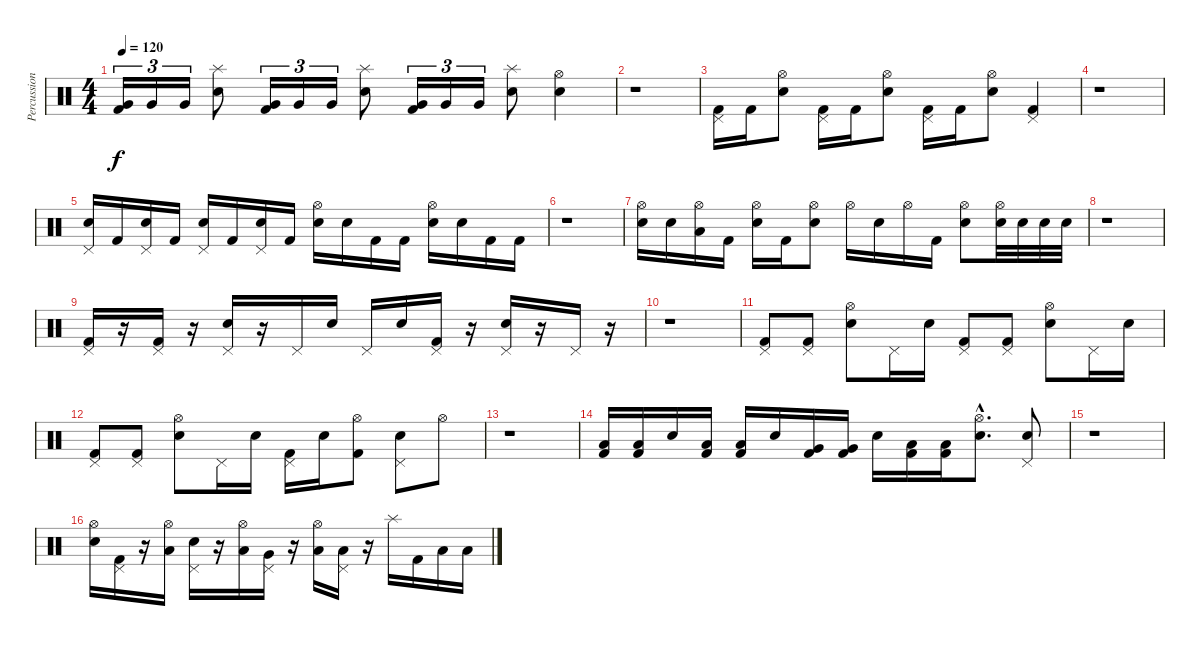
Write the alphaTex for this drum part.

\track ("Percussion" "Percussion") {instrument percussion}
\staff {score}
\articulation defaults
\ts (4 4)
\tempo 120
\clef neutral
\ks c
("Very Low Tom (hit)" "Kick (hit) 2").16{tu (3 2) dy f} "Very Low Tom (hit)".16{tu (3 2)} "Very Low Tom (hit)".16{tu (3 2)} ("Snare (hit) 2" "Splash (hit)").8 ("Very Low Tom (hit)" "Kick (hit) 2").16{tu (3 2)} "Very Low Tom (hit)".16{tu (3 2)} "Very Low Tom (hit)".16{tu (3 2)} ("Snare (hit) 2" "Splash (hit)").8 ("Very Low Tom (hit)" "Kick (hit) 2").16{tu (3 2)} "Very Low Tom (hit)".16{tu (3 2)} "Very Low Tom (hit)".16{tu (3 2)} ("Snare (hit) 2" "Splash (hit)").8 ("Snare (hit) 2" "Hi-Hat (open)").4 |
r.1 |
("Kick (hit) 2" "Pedal Hi-Hat (hit)").16 "Kick (hit) 2".16 ("Snare (hit) 2" "Hi-Hat (open)").8 ("Kick (hit) 2" "Pedal Hi-Hat (hit)").16 "Kick (hit) 2".16 ("Snare (hit) 2" "Hi-Hat (open)").8 ("Kick (hit) 2" "Pedal Hi-Hat (hit)").16 "Kick (hit) 2".16 ("Snare (hit) 2" "Hi-Hat (open)").8 ("Kick (hit) 2" "Pedal Hi-Hat (hit)").4 |
r.1 |
("Snare (hit) 2" "Pedal Hi-Hat (hit)").16 "Kick (hit) 2".16 ("Snare (hit) 2" "Pedal Hi-Hat (hit)").16 "Kick (hit) 2".16 ("Snare (hit) 2" "Pedal Hi-Hat (hit)").16 "Kick (hit) 2".16 ("Snare (hit) 2" "Pedal Hi-Hat (hit)").16 "Kick (hit) 2".16 ("Snare (hit) 2" "Hi-Hat (open)").16 "Snare (hit) 2".16 "Kick (hit) 2".16 "Kick (hit) 2".16 ("Snare (hit) 2" "Hi-Hat (open)").16 "Snare (hit) 2".16 "Kick (hit) 2".16 "Kick (hit) 2".16 |
r.1 |
("Snare (hit) 2" "Hi-Hat (open)").16 "Snare (hit) 2".16 ("Low Tom (hit)" "Hi-Hat (open)").16 "Kick (hit) 2".16 ("Snare (hit) 2" "Hi-Hat (open)").16 "Kick (hit) 2".16 ("Snare (hit) 2" "Hi-Hat (open)").8 "Hi-Hat (open)".16 "Snare (hit) 2".16 "Hi-Hat (open)".16 "Kick (hit) 2".16 ("Snare (hit) 2" "Hi-Hat (open)").8 ("Snare (hit) 2" "Hi-Hat (open)").32 "Snare (hit) 2".32 "Snare (hit) 2".32 "Snare (hit) 2".32 |
r.1 |
("Kick (hit) 2" "Pedal Hi-Hat (hit)").16 r.16 ("Kick (hit) 2" "Pedal Hi-Hat (hit)").16 r.16 ("Snare (hit) 2" "Pedal Hi-Hat (hit)").16 r.16 "Pedal Hi-Hat (hit)".16 "Snare (hit) 2".16 "Pedal Hi-Hat (hit)".16 "Snare (hit) 2".16 ("Kick (hit) 2" "Pedal Hi-Hat (hit)").16 r.16 ("Snare (hit) 2" "Pedal Hi-Hat (hit)").16 r.16 "Pedal Hi-Hat (hit)".16 r.16 |
r.1 |
("Kick (hit) 2" "Pedal Hi-Hat (hit)").8 ("Kick (hit) 2" "Pedal Hi-Hat (hit)").8 ("Snare (hit) 2" "Hi-Hat (open)").8 "Pedal Hi-Hat (hit)".16 "Snare (hit) 2".16 ("Kick (hit) 2" "Pedal Hi-Hat (hit)").8 ("Kick (hit) 2" "Pedal Hi-Hat (hit)").8 ("Snare (hit) 2" "Hi-Hat (open)").8 "Pedal Hi-Hat (hit)".16 "Snare (hit) 2".16 |
("Kick (hit) 2" "Pedal Hi-Hat (hit)").8 ("Kick (hit) 2" "Pedal Hi-Hat (hit)").8 ("Snare (hit) 2" "Hi-Hat (open)").8 "Pedal Hi-Hat (hit)".16 "Snare (hit) 2".16 ("Kick (hit) 2" "Pedal Hi-Hat (hit)").16 "Snare (hit) 2".16 ("Kick (hit) 2" "Hi-Hat (open)").8 ("Snare (hit) 2" "Pedal Hi-Hat (hit)").8 "Hi-Hat (open)".8 |
r.1 |
("Low Tom (hit)" "Kick (hit) 2").16 ("Low Tom (hit)" "Kick (hit) 2").16 "Snare (hit) 2".16 ("Low Tom (hit)" "Kick (hit) 2").16 ("Low Tom (hit)" "Kick (hit) 2").16 "Snare (hit) 2".16 ("Very Low Tom (hit)" "Kick (hit) 2").16 ("Very Low Tom (hit)" "Kick (hit) 2").16 "Snare (hit) 2".16 ("Low Floor Tom (hit)" "Kick (hit) 2").16 ("Low Floor Tom (hit)" "Kick (hit) 2").16 ("Snare (hit) 2"{hac} "Hi-Hat (open)"{hac}).8{d} ("Snare (hit) 2" "Pedal Hi-Hat (hit)").8 |
r.1 |
("Snare (hit) 2" "Hi-Hat (open)").16 ("Kick (hit) 2" "Pedal Hi-Hat (hit)").16 r.16 ("Low Tom (hit)" "Hi-Hat (open)").16 ("Snare (hit) 2" "Pedal Hi-Hat (hit)").16 r.16 ("Low Tom (hit)" "Hi-Hat (open)").16 ("Very Low Tom (hit)" "Pedal Hi-Hat (hit)").16 r.16 ("Low Tom (hit)" "Hi-Hat (open)").16 ("Low Floor Tom (hit)" "Pedal Hi-Hat (hit)").16 r.16 "Splash (hit)".16 "Kick (hit) 2".16 "Low Tom (hit)".16 "Low Tom (hit)".16
